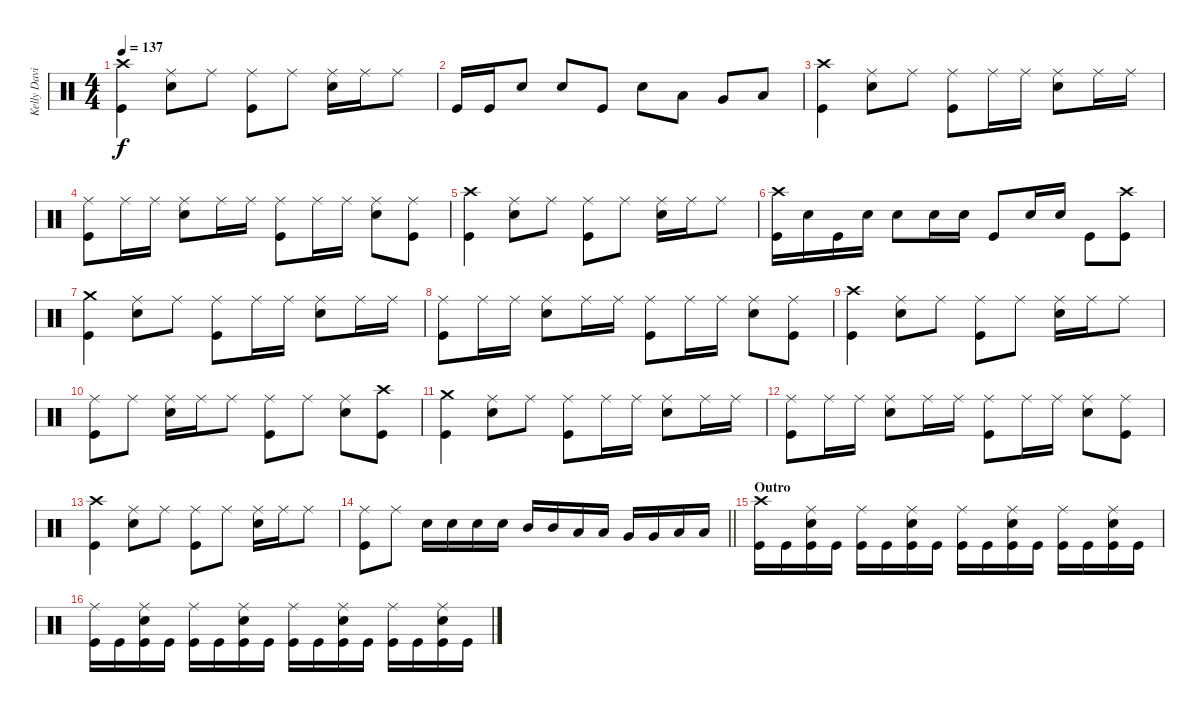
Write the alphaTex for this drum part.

\track ("Kelly David Smith" "Kelly Davi") {instrument percussion}
\staff {score}
\articulation defaults
\ts (4 4)
\tempo 137
\clef neutral
\ks c
("Crash high (hit)" "Kick (hit)").4{dy f} ("Ride (middle)" "Electric Snare (hit)").8 "Ride (middle)".8 ("Ride (middle)" "Kick (hit)").8 "Ride (middle)".8 ("Ride (middle)" "Electric Snare (hit)").16 "Ride (middle)".16 "Ride (middle)".8 |
"Kick (hit)".16 "Kick (hit)".16 "Electric Snare (hit)".8 "Electric Snare (hit)".8 "Kick (hit)".8 "Electric Snare (hit)".8 "Low Tom (hit)".8 "Very Low Tom (hit)".8 "Low Floor Tom (hit)".8 |
("Crash high (hit)" "Kick (hit)").4 ("Ride (middle)" "Electric Snare (hit)").8 "Ride (middle)".8 ("Ride (middle)" "Kick (hit)").8 "Ride (middle)".16 "Ride (middle)".16 ("Ride (middle)" "Electric Snare (hit)").8 "Ride (middle)".16 "Ride (middle)".16 |
("Ride (middle)" "Kick (hit)").8 "Ride (middle)".16 "Ride (middle)".16 ("Ride (middle)" "Electric Snare (hit)").8 "Ride (middle)".16 "Ride (middle)".16 ("Ride (middle)" "Kick (hit)").8 "Ride (middle)".16 "Ride (middle)".16 ("Ride (middle)" "Electric Snare (hit)").8 ("Ride (middle)" "Kick (hit)").8 |
("Crash high (hit)" "Kick (hit)").4 ("Ride (middle)" "Electric Snare (hit)").8 "Ride (middle)".8 ("Ride (middle)" "Kick (hit)").8 "Ride (middle)".8 ("Ride (middle)" "Electric Snare (hit)").16 "Ride (middle)".16 "Ride (middle)".8 |
("Crash high (hit)" "Kick (hit)").16 "Electric Snare (hit)".16 "Kick (hit)".16 "Electric Snare (hit)".16 "Electric Snare (hit)".8 "Electric Snare (hit)".16 "Electric Snare (hit)".16 "Kick (hit)".8 "Electric Snare (hit)".16 "Electric Snare (hit)".16 "Kick (hit)".8 ("Crash high (hit)" "Kick (hit)").8 |
("Crash medium (hit)" "Kick (hit)").4 ("Ride (middle)" "Electric Snare (hit)").8 "Ride (middle)".8 ("Ride (middle)" "Kick (hit)").8 "Ride (middle)".16 "Ride (middle)".16 ("Ride (middle)" "Electric Snare (hit)").8 "Ride (middle)".16 "Ride (middle)".16 |
("Ride (middle)" "Kick (hit)").8 "Ride (middle)".16 "Ride (middle)".16 ("Ride (middle)" "Electric Snare (hit)").8 "Ride (middle)".16 "Ride (middle)".16 ("Ride (middle)" "Kick (hit)").8 "Ride (middle)".16 "Ride (middle)".16 ("Ride (middle)" "Electric Snare (hit)").8 ("Ride (middle)" "Kick (hit)").8 |
("Crash high (hit)" "Kick (hit)").4 ("Ride (middle)" "Electric Snare (hit)").8 "Ride (middle)".8 ("Ride (middle)" "Kick (hit)").8 "Ride (middle)".8 ("Ride (middle)" "Electric Snare (hit)").16 "Ride (middle)".16 "Ride (middle)".8 |
("Ride (middle)" "Kick (hit)").8 "Ride (middle)".8 ("Ride (middle)" "Electric Snare (hit)").16 "Ride (middle)".16 "Ride (middle)".8 ("Ride (middle)" "Kick (hit)").8 "Ride (middle)".8 ("Ride (middle)" "Electric Snare (hit)").8 ("Crash high (hit)" "Kick (hit)").8 |
("Crash medium (hit)" "Kick (hit)").4 ("Ride (middle)" "Electric Snare (hit)").8 "Ride (middle)".8 ("Ride (middle)" "Kick (hit)").8 "Ride (middle)".16 "Ride (middle)".16 ("Ride (middle)" "Electric Snare (hit)").8 "Ride (middle)".16 "Ride (middle)".16 |
("Ride (middle)" "Kick (hit)").8 "Ride (middle)".16 "Ride (middle)".16 ("Ride (middle)" "Electric Snare (hit)").8 "Ride (middle)".16 "Ride (middle)".16 ("Ride (middle)" "Kick (hit)").8 "Ride (middle)".16 "Ride (middle)".16 ("Ride (middle)" "Electric Snare (hit)").8 ("Ride (middle)" "Kick (hit)").8 |
("Crash high (hit)" "Kick (hit)").4 ("Ride (middle)" "Electric Snare (hit)").8 "Ride (middle)".8 ("Ride (middle)" "Kick (hit)").8 "Ride (middle)".8 ("Ride (middle)" "Electric Snare (hit)").16 "Ride (middle)".16 "Ride (middle)".8 |
\barLineRight lightlight
("Ride (middle)" "Kick (hit)").8 "Ride (middle)".8 "Electric Snare (hit)".16 "Electric Snare (hit)".16 "Electric Snare (hit)".16 "Electric Snare (hit)".16 "Mid Tom (hit)".16 "Mid Tom (hit)".16 "Low Tom (hit)".16 "Low Tom (hit)".16 "Very Low Tom (hit)".16 "Very Low Tom (hit)".16 "Low Floor Tom (hit)".16 "Low Floor Tom (hit)".16 |
\section ("" "Outro")
("Crash high (hit)" "Kick (hit)").16 "Kick (hit)".16 ("Ride (middle)" "Electric Snare (hit)" "Kick (hit)").16 "Kick (hit)".16 ("Ride (middle)" "Kick (hit)").16 "Kick (hit)".16 ("Ride (middle)" "Electric Snare (hit)" "Kick (hit)").16 "Kick (hit)".16 ("Ride (middle)" "Kick (hit)").16 "Kick (hit)".16 ("Ride (middle)" "Electric Snare (hit)" "Kick (hit)").16 "Kick (hit)".16 ("Ride (middle)" "Kick (hit)").16 "Kick (hit)".16 ("Ride (middle)" "Electric Snare (hit)" "Kick (hit)").16 "Kick (hit)".16 |
("Ride (middle)" "Kick (hit)").16 "Kick (hit)".16 ("Ride (middle)" "Electric Snare (hit)" "Kick (hit)").16 "Kick (hit)".16 ("Ride (middle)" "Kick (hit)").16 "Kick (hit)".16 ("Ride (middle)" "Electric Snare (hit)" "Kick (hit)").16 "Kick (hit)".16 ("Ride (middle)" "Kick (hit)").16 "Kick (hit)".16 ("Ride (middle)" "Electric Snare (hit)" "Kick (hit)").16 "Kick (hit)".16 ("Ride (middle)" "Kick (hit)").16 "Kick (hit)".16 ("Ride (middle)" "Electric Snare (hit)" "Kick (hit)").16 "Kick (hit)".16
